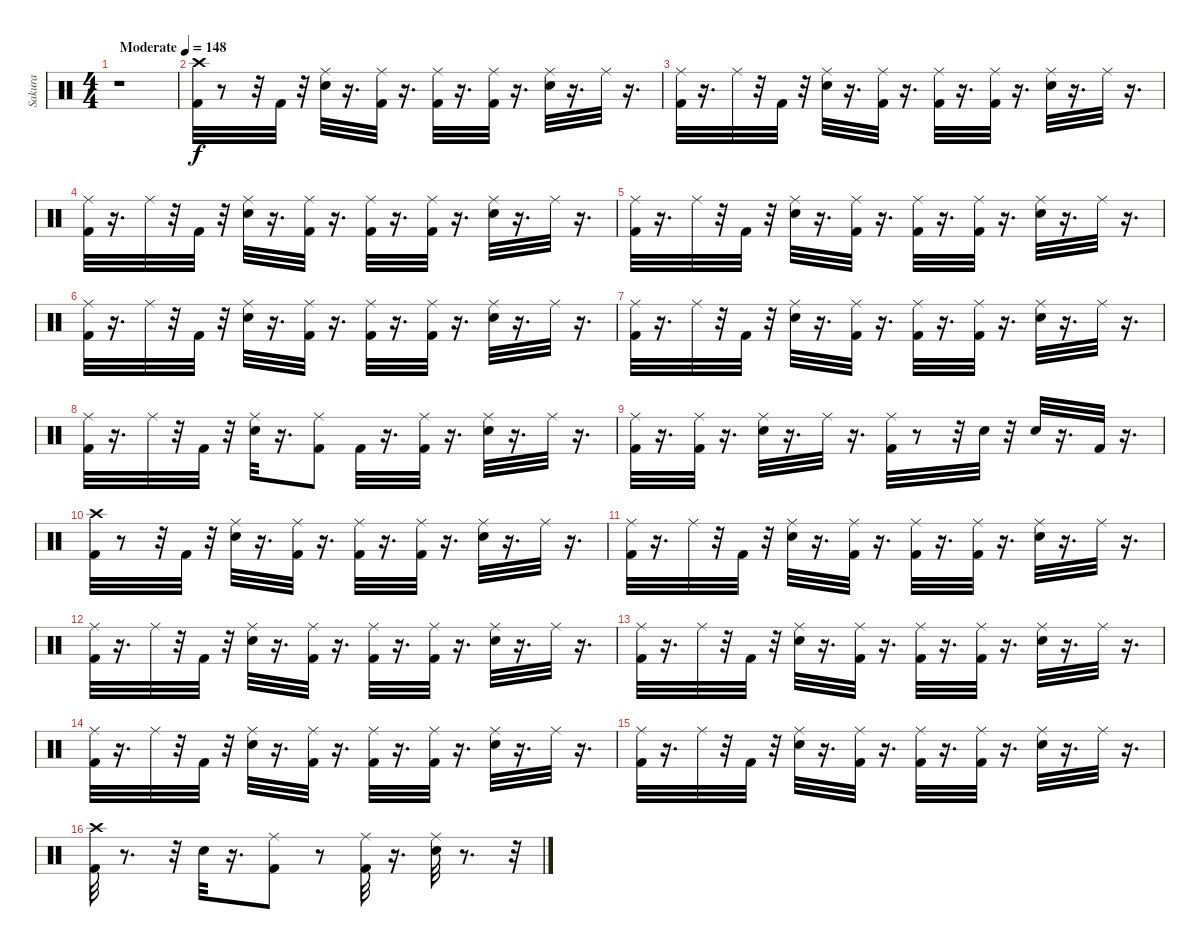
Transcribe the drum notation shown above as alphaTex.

\track ("Sakura" "Sakura") {instrument percussion}
\staff {score}
\articulation defaults
\ts (4 4)
\tempo (148 "Moderate")
\clef neutral
\ks c
r.1{dy f} |
("Crash high (hit)" "Kick (hit) 2").32 r.8 r.32 "Kick (hit) 2".32 r.32 ("Ride (middle)" "Snare (hit) 2").32 r.16{d} ("Ride (middle)" "Kick (hit) 2").32 r.16{d} ("Ride (middle)" "Kick (hit) 2").32 r.16{d} ("Ride (middle)" "Kick (hit) 2").32 r.16{d} ("Ride (middle)" "Snare (hit) 2").32 r.16{d} "Ride (middle)".32 r.16{d} |
("Kick (hit) 2" "Ride (middle)").32 r.16{d} "Ride (middle)".32 r.32 "Kick (hit) 2".32 r.32 ("Ride (middle)" "Snare (hit) 2").32 r.16{d} ("Ride (middle)" "Kick (hit) 2").32 r.16{d} ("Ride (middle)" "Kick (hit) 2").32 r.16{d} ("Ride (middle)" "Kick (hit) 2").32 r.16{d} ("Ride (middle)" "Snare (hit) 2").32 r.16{d} "Ride (middle)".32 r.16{d} |
("Kick (hit) 2" "Ride (middle)").32 r.16{d} "Ride (middle)".32 r.32 "Kick (hit) 2".32 r.32 ("Ride (middle)" "Snare (hit) 2").32 r.16{d} ("Ride (middle)" "Kick (hit) 2").32 r.16{d} ("Ride (middle)" "Kick (hit) 2").32 r.16{d} ("Ride (middle)" "Kick (hit) 2").32 r.16{d} ("Ride (middle)" "Snare (hit) 2").32 r.16{d} "Ride (middle)".32 r.16{d} |
("Kick (hit) 2" "Ride (middle)").32 r.16{d} "Ride (middle)".32 r.32 "Kick (hit) 2".32 r.32 ("Ride (middle)" "Snare (hit) 2").32 r.16{d} ("Ride (middle)" "Kick (hit) 2").32 r.16{d} ("Ride (middle)" "Kick (hit) 2").32 r.16{d} ("Ride (middle)" "Kick (hit) 2").32 r.16{d} ("Ride (middle)" "Snare (hit) 2").32 r.16{d} "Ride (middle)".32 r.16{d} |
("Kick (hit) 2" "Ride (middle)").32 r.16{d} "Ride (middle)".32 r.32 "Kick (hit) 2".32 r.32 ("Ride (middle)" "Snare (hit) 2").32 r.16{d} ("Ride (middle)" "Kick (hit) 2").32 r.16{d} ("Ride (middle)" "Kick (hit) 2").32 r.16{d} ("Ride (middle)" "Kick (hit) 2").32 r.16{d} ("Ride (middle)" "Snare (hit) 2").32 r.16{d} "Ride (middle)".32 r.16{d} |
("Kick (hit) 2" "Ride (middle)").32 r.16{d} "Ride (middle)".32 r.32 "Kick (hit) 2".32 r.32 ("Ride (middle)" "Snare (hit) 2").32 r.16{d} ("Ride (middle)" "Kick (hit) 2").32 r.16{d} ("Ride (middle)" "Kick (hit) 2").32 r.16{d} ("Ride (middle)" "Kick (hit) 2").32 r.16{d} ("Ride (middle)" "Snare (hit) 2").32 r.16{d} "Ride (middle)".32 r.16{d} |
("Kick (hit) 2" "Ride (middle)").32 r.16{d} "Ride (middle)".32 r.32 "Kick (hit) 2".32 r.32 ("Ride (middle)" "Snare (hit) 2").32 r.16{d} ("Ride (middle)" "Kick (hit) 2").8 "Kick (hit) 2".32 r.16{d} ("Ride (middle)" "Kick (hit) 2").32 r.16{d} ("Ride (middle)" "Snare (hit) 2").32 r.16{d} "Ride (middle)".32 r.16{d} |
("Ride (middle)" "Kick (hit) 2").32 r.16{d} ("Ride (middle)" "Kick (hit) 2").32 r.16{d} ("Ride (middle)" "Snare (hit) 2").32 r.16{d} "Ride (middle)".32 r.16{d} ("Ride (middle)" "Kick (hit) 2").32 r.8 r.32 "Snare (hit) 2".32 r.32 "Snare (hit) 2".32 r.16{d} "Kick (hit) 2".32 r.16{d} |
("Crash high (hit)" "Kick (hit) 2").32 r.8 r.32 "Kick (hit) 2".32 r.32 ("Ride (middle)" "Snare (hit) 2").32 r.16{d} ("Ride (middle)" "Kick (hit) 2").32 r.16{d} ("Ride (middle)" "Kick (hit) 2").32 r.16{d} ("Ride (middle)" "Kick (hit) 2").32 r.16{d} ("Ride (middle)" "Snare (hit) 2").32 r.16{d} "Ride (middle)".32 r.16{d} |
("Kick (hit) 2" "Ride (middle)").32 r.16{d} "Ride (middle)".32 r.32 "Kick (hit) 2".32 r.32 ("Ride (middle)" "Snare (hit) 2").32 r.16{d} ("Ride (middle)" "Kick (hit) 2").32 r.16{d} ("Ride (middle)" "Kick (hit) 2").32 r.16{d} ("Ride (middle)" "Kick (hit) 2").32 r.16{d} ("Ride (middle)" "Snare (hit) 2").32 r.16{d} "Ride (middle)".32 r.16{d} |
("Kick (hit) 2" "Ride (middle)").32 r.16{d} "Ride (middle)".32 r.32 "Kick (hit) 2".32 r.32 ("Ride (middle)" "Snare (hit) 2").32 r.16{d} ("Ride (middle)" "Kick (hit) 2").32 r.16{d} ("Ride (middle)" "Kick (hit) 2").32 r.16{d} ("Ride (middle)" "Kick (hit) 2").32 r.16{d} ("Ride (middle)" "Snare (hit) 2").32 r.16{d} "Ride (middle)".32 r.16{d} |
("Kick (hit) 2" "Ride (middle)").32 r.16{d} "Ride (middle)".32 r.32 "Kick (hit) 2".32 r.32 ("Ride (middle)" "Snare (hit) 2").32 r.16{d} ("Ride (middle)" "Kick (hit) 2").32 r.16{d} ("Ride (middle)" "Kick (hit) 2").32 r.16{d} ("Ride (middle)" "Kick (hit) 2").32 r.16{d} ("Ride (middle)" "Snare (hit) 2").32 r.16{d} "Ride (middle)".32 r.16{d} |
("Kick (hit) 2" "Ride (middle)").32 r.16{d} "Ride (middle)".32 r.32 "Kick (hit) 2".32 r.32 ("Ride (middle)" "Snare (hit) 2").32 r.16{d} ("Ride (middle)" "Kick (hit) 2").32 r.16{d} ("Ride (middle)" "Kick (hit) 2").32 r.16{d} ("Ride (middle)" "Kick (hit) 2").32 r.16{d} ("Ride (middle)" "Snare (hit) 2").32 r.16{d} "Ride (middle)".32 r.16{d} |
("Kick (hit) 2" "Ride (middle)").32 r.16{d} "Ride (middle)".32 r.32 "Kick (hit) 2".32 r.32 ("Ride (middle)" "Snare (hit) 2").32 r.16{d} ("Ride (middle)" "Kick (hit) 2").32 r.16{d} ("Ride (middle)" "Kick (hit) 2").32 r.16{d} ("Ride (middle)" "Kick (hit) 2").32 r.16{d} ("Ride (middle)" "Snare (hit) 2").32 r.16{d} "Ride (middle)".32 r.16{d} |
("Crash high (hit)" "Kick (hit) 2").32 r.8{d} r.32 "Snare (hit) 2".32 r.16{d} ("Ride (middle)" "Kick (hit) 2").8 r.8 ("Ride (middle)" "Kick (hit) 2").32 r.16{d} ("Ride (middle)" "Snare (hit) 2").32 r.8{d} r.32
